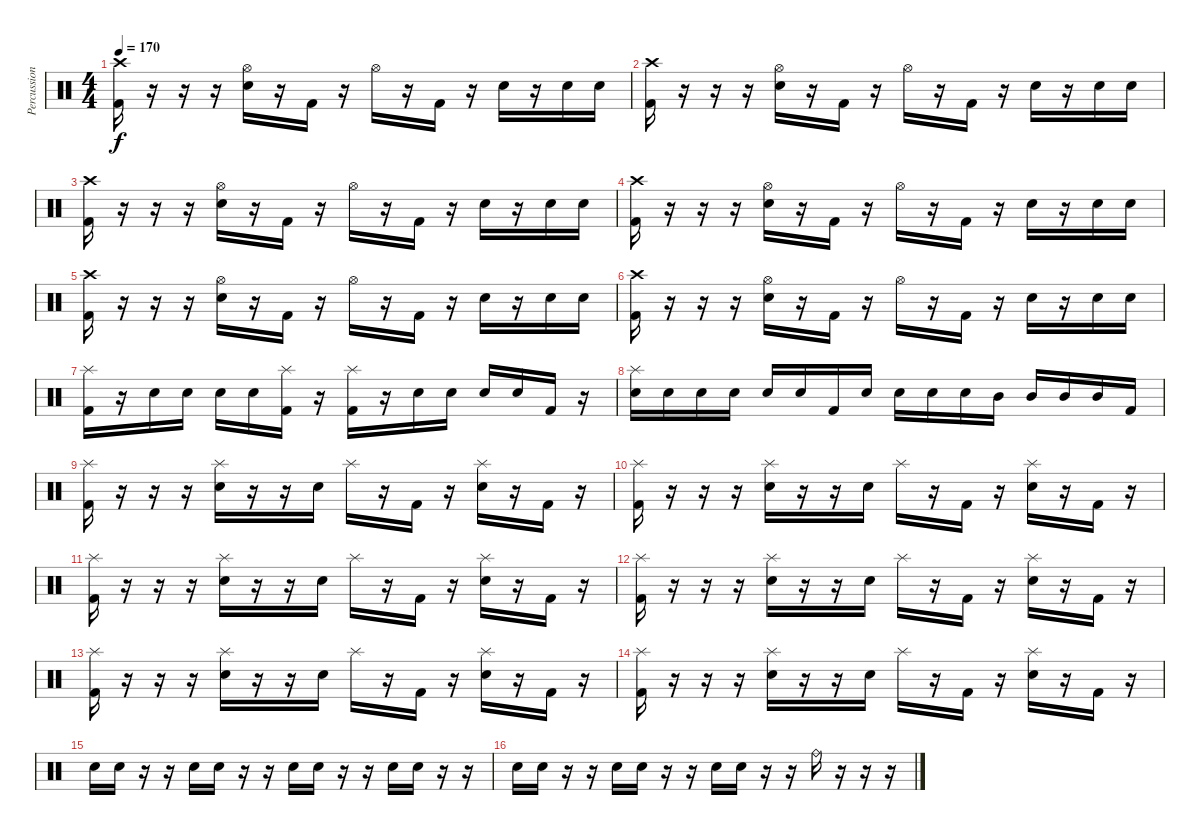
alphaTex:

\track ("Percussion" "Percussion") {instrument percussion}
\staff {score}
\articulation defaults
\ts (4 4)
\tempo 170
\clef neutral
\ks c
("Crash high (hit)" "Kick (hit) 2").16{dy f} r.16 r.16 r.16 ("Hi-Hat (open)" "Electric Snare (hit)").16 r.16 "Kick (hit) 2".16 r.16 "Hi-Hat (open)".16 r.16 "Kick (hit) 2".16 r.16 "Electric Snare (hit)".16 r.16 "Electric Snare (hit)".16 "Electric Snare (hit)".16 |
("Crash high (hit)" "Kick (hit) 2").16 r.16 r.16 r.16 ("Hi-Hat (open)" "Electric Snare (hit)").16 r.16 "Kick (hit) 2".16 r.16 "Hi-Hat (open)".16 r.16 "Kick (hit) 2".16 r.16 "Electric Snare (hit)".16 r.16 "Electric Snare (hit)".16 "Electric Snare (hit)".16 |
("Crash high (hit)" "Kick (hit) 2").16 r.16 r.16 r.16 ("Hi-Hat (open)" "Electric Snare (hit)").16 r.16 "Kick (hit) 2".16 r.16 "Hi-Hat (open)".16 r.16 "Kick (hit) 2".16 r.16 "Electric Snare (hit)".16 r.16 "Electric Snare (hit)".16 "Electric Snare (hit)".16 |
("Crash high (hit)" "Kick (hit) 2").16 r.16 r.16 r.16 ("Hi-Hat (open)" "Electric Snare (hit)").16 r.16 "Kick (hit) 2".16 r.16 "Hi-Hat (open)".16 r.16 "Kick (hit) 2".16 r.16 "Electric Snare (hit)".16 r.16 "Electric Snare (hit)".16 "Electric Snare (hit)".16 |
("Crash high (hit)" "Kick (hit) 2").16 r.16 r.16 r.16 ("Hi-Hat (open)" "Electric Snare (hit)").16 r.16 "Kick (hit) 2".16 r.16 "Hi-Hat (open)".16 r.16 "Kick (hit) 2".16 r.16 "Electric Snare (hit)".16 r.16 "Electric Snare (hit)".16 "Electric Snare (hit)".16 |
("Crash high (hit)" "Kick (hit) 2").16 r.16 r.16 r.16 ("Hi-Hat (open)" "Electric Snare (hit)").16 r.16 "Kick (hit) 2".16 r.16 "Hi-Hat (open)".16 r.16 "Kick (hit) 2".16 r.16 "Electric Snare (hit)".16 r.16 "Electric Snare (hit)".16 "Electric Snare (hit)".16 |
("Splash (hit)" "Kick (hit) 2").16 r.16 "Electric Snare (hit)".16 "Electric Snare (hit)".16 "Electric Snare (hit)".16 "Electric Snare (hit)".16 ("Splash (hit)" "Kick (hit) 2").16 r.16 ("Splash (hit)" "Kick (hit) 2").16 r.16 "Electric Snare (hit)".16 "Electric Snare (hit)".16 "Electric Snare (hit)".16 "Electric Snare (hit)".16 "Kick (hit) 2".16 r.16 |
("Splash (hit)" "Electric Snare (hit)").16 "Electric Snare (hit)".16 "Electric Snare (hit)".16 "Electric Snare (hit)".16 "Electric Snare (hit)".16 "Electric Snare (hit)".16 "Kick (hit) 2".16 "Electric Snare (hit)".16 "Electric Snare (hit)".16 "Electric Snare (hit)".16 "Electric Snare (hit)".16 "Mid Tom (hit)".16 "Mid Tom (hit)".16 "Mid Tom (hit)".16 "Mid Tom (hit)".16 "Kick (hit) 2".16 |
("Splash (hit)" "Kick (hit) 2").16 r.16 r.16 r.16 ("Splash (hit)" "Electric Snare (hit)").16 r.16 r.16 "Electric Snare (hit)".16 "Splash (hit)".16 r.16 "Kick (hit) 2".16 r.16 ("Splash (hit)" "Electric Snare (hit)").16 r.16 "Kick (hit) 2".16 r.16 |
("Splash (hit)" "Kick (hit) 2").16 r.16 r.16 r.16 ("Splash (hit)" "Electric Snare (hit)").16 r.16 r.16 "Electric Snare (hit)".16 "Splash (hit)".16 r.16 "Kick (hit) 2".16 r.16 ("Splash (hit)" "Electric Snare (hit)").16 r.16 "Kick (hit) 2".16 r.16 |
("Splash (hit)" "Kick (hit) 2").16 r.16 r.16 r.16 ("Splash (hit)" "Electric Snare (hit)").16 r.16 r.16 "Electric Snare (hit)".16 "Splash (hit)".16 r.16 "Kick (hit) 2".16 r.16 ("Splash (hit)" "Electric Snare (hit)").16 r.16 "Kick (hit) 2".16 r.16 |
("Splash (hit)" "Kick (hit) 2").16 r.16 r.16 r.16 ("Splash (hit)" "Electric Snare (hit)").16 r.16 r.16 "Electric Snare (hit)".16 "Splash (hit)".16 r.16 "Kick (hit) 2".16 r.16 ("Splash (hit)" "Electric Snare (hit)").16 r.16 "Kick (hit) 2".16 r.16 |
("Splash (hit)" "Kick (hit) 2").16 r.16 r.16 r.16 ("Splash (hit)" "Electric Snare (hit)").16 r.16 r.16 "Electric Snare (hit)".16 "Splash (hit)".16 r.16 "Kick (hit) 2".16 r.16 ("Splash (hit)" "Electric Snare (hit)").16 r.16 "Kick (hit) 2".16 r.16 |
("Splash (hit)" "Kick (hit) 2").16 r.16 r.16 r.16 ("Splash (hit)" "Electric Snare (hit)").16 r.16 r.16 "Electric Snare (hit)".16 "Splash (hit)".16 r.16 "Kick (hit) 2".16 r.16 ("Splash (hit)" "Electric Snare (hit)").16 r.16 "Kick (hit) 2".16 r.16 |
"Electric Snare (hit)".16 "Electric Snare (hit)".16 r.16 r.16 "Electric Snare (hit)".16 "Electric Snare (hit)".16 r.16 r.16 "Electric Snare (hit)".16 "Electric Snare (hit)".16 r.16 r.16 "Electric Snare (hit)".16 "Electric Snare (hit)".16 r.16 r.16 |
"Electric Snare (hit)".16 "Electric Snare (hit)".16 r.16 r.16 "Electric Snare (hit)".16 "Electric Snare (hit)".16 r.16 r.16 "Electric Snare (hit)".16 "Electric Snare (hit)".16 r.16 r.16 "Ride (bell)".16 r.16 r.16 r.16
